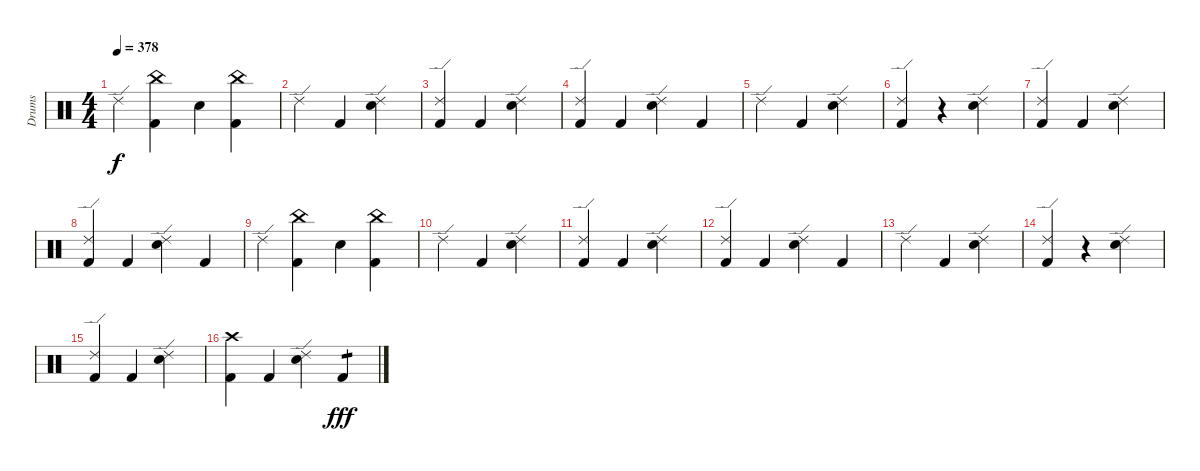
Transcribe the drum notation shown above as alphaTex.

\track ("Drums" "Drums") {instrument percussion}
\staff {score}
\articulation defaults
\ts (4 4)
\tempo 378
\clef neutral
\ks c "Ride (edge) 2".4{dy f}
("China (hit)" "Kick (hit) 2").4 "Electric Snare (hit)".4 ("China (hit)" "Kick (hit) 2").4 |
"Ride (edge) 2".4 "Kick (hit) 2".4 ("Ride (edge) 2" "Electric Snare (hit)").4 |
("Ride (edge) 2" "Kick (hit) 2").4 "Kick (hit) 2".4 ("Ride (edge) 2" "Electric Snare (hit)").4 |
("Ride (edge) 2" "Kick (hit) 2").4 "Kick (hit) 2".4 ("Ride (edge) 2" "Electric Snare (hit)").4 "Kick (hit) 2".4 |
"Ride (edge) 2".4 "Kick (hit) 2".4 ("Ride (edge) 2" "Electric Snare (hit)").4 |
("Ride (edge) 2" "Kick (hit) 2").4 r.4 ("Ride (edge) 2" "Electric Snare (hit)").4 |
("Ride (edge) 2" "Kick (hit) 2").4 "Kick (hit) 2".4 ("Ride (edge) 2" "Electric Snare (hit)").4 |
("Ride (edge) 2" "Kick (hit) 2").4 "Kick (hit) 2".4 ("Ride (edge) 2" "Electric Snare (hit)").4 "Kick (hit) 2".4 |
"Ride (edge) 2".4 ("China (hit)" "Kick (hit) 2").4 "Electric Snare (hit)".4 ("China (hit)" "Kick (hit) 2").4 |
"Ride (edge) 2".4 "Kick (hit) 2".4 ("Ride (edge) 2" "Electric Snare (hit)").4 |
("Ride (edge) 2" "Kick (hit) 2").4 "Kick (hit) 2".4 ("Ride (edge) 2" "Electric Snare (hit)").4 |
("Ride (edge) 2" "Kick (hit) 2").4 "Kick (hit) 2".4 ("Ride (edge) 2" "Electric Snare (hit)").4 "Kick (hit) 2".4 |
"Ride (edge) 2".4 "Kick (hit) 2".4 ("Ride (edge) 2" "Electric Snare (hit)").4 |
("Ride (edge) 2" "Kick (hit) 2").4 r.4 ("Ride (edge) 2" "Electric Snare (hit)").4 |
("Ride (edge) 2" "Kick (hit) 2").4 "Kick (hit) 2".4 ("Ride (edge) 2" "Electric Snare (hit)").4 |
("Crash high (hit)" "Kick (hit) 2").4 "Kick (hit) 2".4 ("Ride (edge) 2" "Electric Snare (hit)").4 "Kick (hit) 2".4{tp 1 dy fff}
